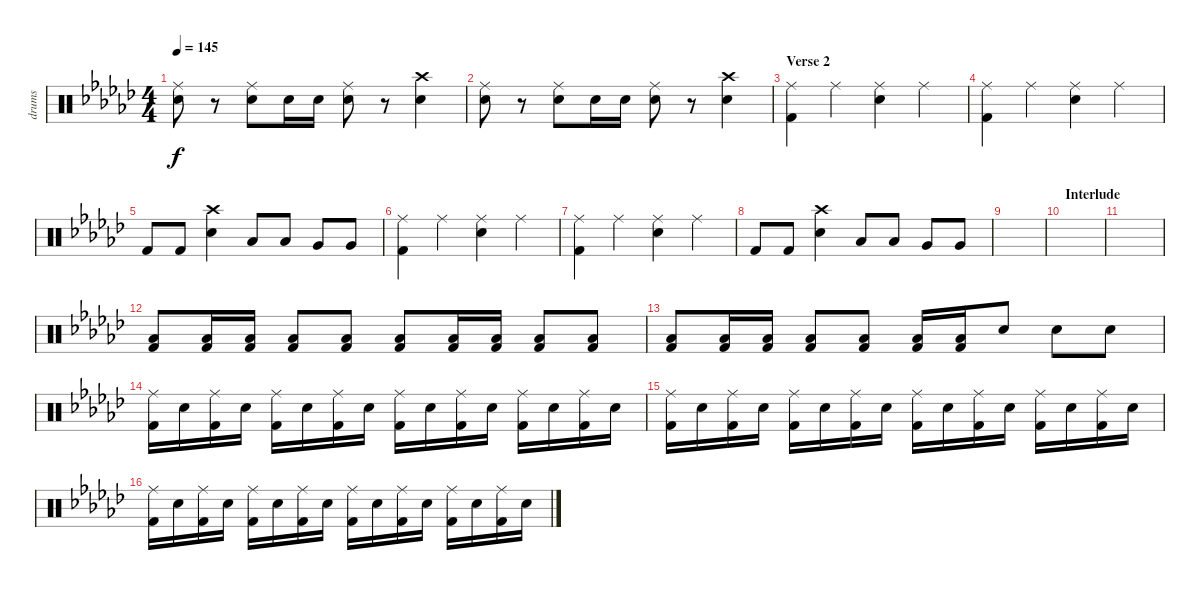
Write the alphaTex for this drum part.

\track ("drums" "drums") {instrument percussion}
\staff {score}
\articulation defaults
\ts (4 4)
\tempo 145
\clef neutral
\ks gb
("Ride (middle)" "Snare (hit) 2").8{dy f} r.8 ("Ride (middle)" "Snare (hit) 2").8 "Snare (hit) 2".16 "Snare (hit) 2".16 ("Ride (middle)" "Snare (hit) 2").8 r.8 ("Crash high (hit)" "Snare (hit) 2").4 |
("Ride (middle)" "Snare (hit) 2").8 r.8 ("Ride (middle)" "Snare (hit) 2").8 "Snare (hit) 2".16 "Snare (hit) 2".16 ("Ride (middle)" "Snare (hit) 2").8 r.8 ("Crash high (hit)" "Snare (hit) 2").4 |
\section ("" "Verse 2")
("Ride (middle)" "Kick (hit) 2").4 "Ride (middle)".4 ("Ride (middle)" "Electric Snare (hit)").4 "Ride (middle)".4 |
("Ride (middle)" "Kick (hit) 2").4 "Ride (middle)".4 ("Ride (middle)" "Electric Snare (hit)").4 "Ride (middle)".4 |
"Kick (hit) 2".8 "Kick (hit) 2".8 ("Crash high (hit)" "Electric Snare (hit)").4 "Low Tom (hit)".8 "Low Tom (hit)".8 "Very Low Tom (hit)".8 "Very Low Tom (hit)".8 |
("Ride (middle)" "Kick (hit) 2").4 "Ride (middle)".4 ("Ride (middle)" "Electric Snare (hit)").4 "Ride (middle)".4 |
("Ride (middle)" "Kick (hit) 2").4 "Ride (middle)".4 ("Ride (middle)" "Electric Snare (hit)").4 "Ride (middle)".4 |
"Kick (hit) 2".8 "Kick (hit) 2".8 ("Crash high (hit)" "Electric Snare (hit)").4 "Low Tom (hit)".8 "Low Tom (hit)".8 "Very Low Tom (hit)".8 "Very Low Tom (hit)".8 |
|
\section ("" "Interlude")
|
|
("Low Tom (hit)" "Kick (hit) 2").8 ("Low Tom (hit)" "Kick (hit) 2").16 ("Low Tom (hit)" "Kick (hit) 2").16 ("Low Tom (hit)" "Kick (hit) 2").8 ("Low Tom (hit)" "Kick (hit) 2").8 ("Low Tom (hit)" "Kick (hit) 2").8 ("Low Tom (hit)" "Kick (hit) 2").16 ("Low Tom (hit)" "Kick (hit) 2").16 ("Low Tom (hit)" "Kick (hit) 2").8 ("Low Tom (hit)" "Kick (hit) 2").8 |
("Low Tom (hit)" "Kick (hit) 2").8 ("Low Tom (hit)" "Kick (hit) 2").16 ("Low Tom (hit)" "Kick (hit) 2").16 ("Low Tom (hit)" "Kick (hit) 2").8 ("Low Tom (hit)" "Kick (hit) 2").8 ("Low Tom (hit)" "Kick (hit) 2").16 ("Low Tom (hit)" "Kick (hit) 2").16 "Snare (hit) 2".8 "Snare (hit) 2".8 "Snare (hit) 2".8 |
("Ride (middle)" "Kick (hit) 2").16 "Electric Snare (hit)".16 ("Ride (middle)" "Kick (hit) 2").16 "Electric Snare (hit)".16 ("Ride (middle)" "Kick (hit) 2").16 "Electric Snare (hit)".16 ("Ride (middle)" "Kick (hit) 2").16 "Electric Snare (hit)".16 ("Ride (middle)" "Kick (hit) 2").16 "Electric Snare (hit)".16 ("Ride (middle)" "Kick (hit) 2").16 "Electric Snare (hit)".16 ("Ride (middle)" "Kick (hit) 2").16 "Electric Snare (hit)".16 ("Ride (middle)" "Kick (hit) 2").16 "Electric Snare (hit)".16 |
("Ride (middle)" "Kick (hit) 2").16 "Electric Snare (hit)".16 ("Ride (middle)" "Kick (hit) 2").16 "Electric Snare (hit)".16 ("Ride (middle)" "Kick (hit) 2").16 "Electric Snare (hit)".16 ("Ride (middle)" "Kick (hit) 2").16 "Electric Snare (hit)".16 ("Ride (middle)" "Kick (hit) 2").16 "Electric Snare (hit)".16 ("Ride (middle)" "Kick (hit) 2").16 "Electric Snare (hit)".16 ("Ride (middle)" "Kick (hit) 2").16 "Electric Snare (hit)".16 ("Ride (middle)" "Kick (hit) 2").16 "Electric Snare (hit)".16 |
("Ride (middle)" "Kick (hit) 2").16 "Electric Snare (hit)".16 ("Ride (middle)" "Kick (hit) 2").16 "Electric Snare (hit)".16 ("Ride (middle)" "Kick (hit) 2").16 "Electric Snare (hit)".16 ("Ride (middle)" "Kick (hit) 2").16 "Electric Snare (hit)".16 ("Ride (middle)" "Kick (hit) 2").16 "Electric Snare (hit)".16 ("Ride (middle)" "Kick (hit) 2").16 "Electric Snare (hit)".16 ("Ride (middle)" "Kick (hit) 2").16 "Electric Snare (hit)".16 ("Ride (middle)" "Kick (hit) 2").16 "Electric Snare (hit)".16
